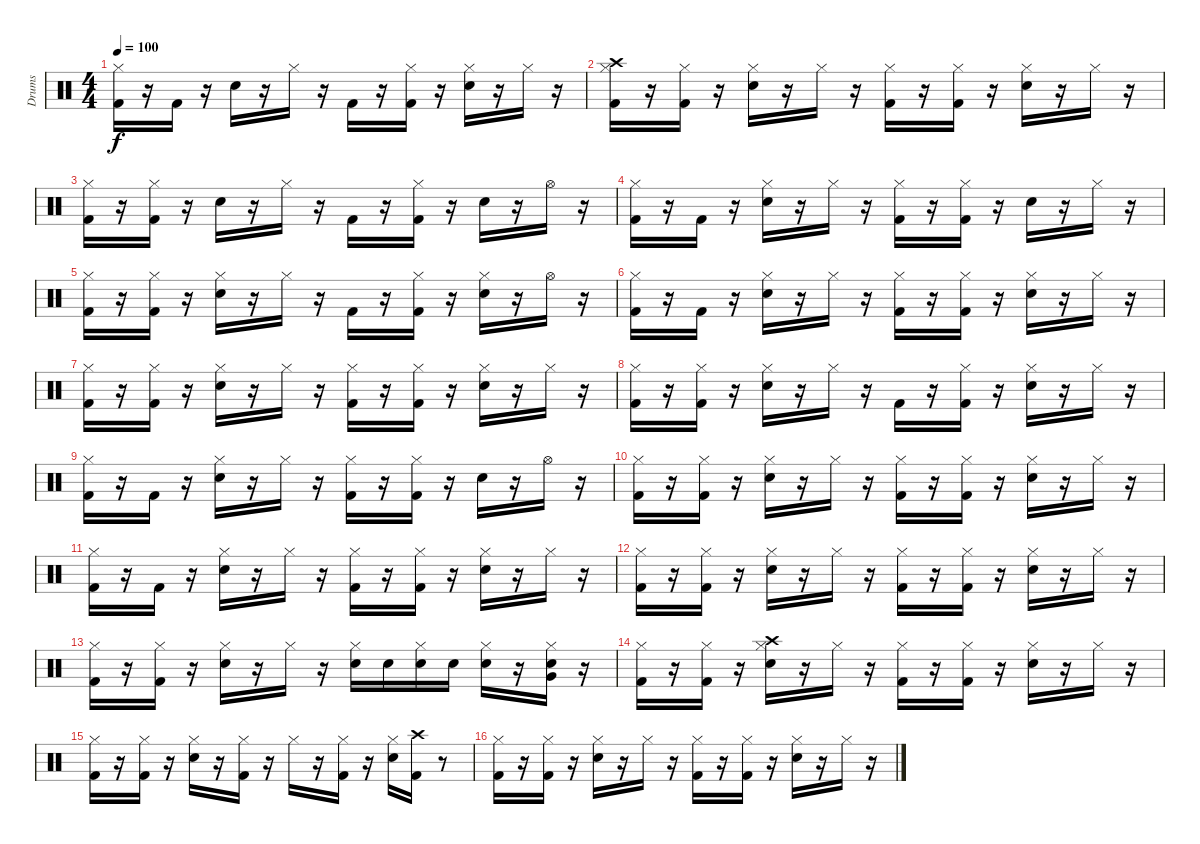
\track ("Drums" "Drums") {instrument percussion}
\staff {score}
\articulation defaults
\ts (4 4)
\tempo 100
\clef neutral
\ks c
("Kick (hit) 2" "Hi-Hat (closed)").16{dy f} r.16 "Kick (hit) 2".16 r.16 "Snare (hit) 2".16 r.16 "Hi-Hat (closed)".16 r.16 "Kick (hit) 2".16 r.16 ("Kick (hit) 2" "Hi-Hat (closed)").16 r.16 ("Snare (hit) 2" "Hi-Hat (closed)").16 r.16 "Hi-Hat (closed)".16 r.16 |
("Kick (hit) 2" "Hi-Hat (closed)" "Crash high (hit)").16 r.16 ("Kick (hit) 2" "Hi-Hat (closed)").16 r.16 ("Snare (hit) 2" "Hi-Hat (closed)").16 r.16 "Hi-Hat (closed)".16 r.16 ("Kick (hit) 2" "Hi-Hat (closed)").16 r.16 ("Kick (hit) 2" "Hi-Hat (closed)").16 r.16 ("Snare (hit) 2" "Hi-Hat (closed)").16 r.16 "Hi-Hat (closed)".16 r.16 |
("Kick (hit) 2" "Hi-Hat (closed)").16 r.16 ("Kick (hit) 2" "Hi-Hat (closed)").16 r.16 "Snare (hit) 2".16 r.16 "Hi-Hat (closed)".16 r.16 "Kick (hit) 2".16 r.16 ("Kick (hit) 2" "Hi-Hat (closed)").16 r.16 "Snare (hit) 2".16 r.16 "Hi-Hat (open)".16 r.16 |
("Kick (hit) 2" "Hi-Hat (closed)").16 r.16 "Kick (hit) 2".16 r.16 ("Snare (hit) 2" "Hi-Hat (closed)").16 r.16 "Hi-Hat (closed)".16 r.16 ("Kick (hit) 2" "Hi-Hat (closed)").16 r.16 ("Kick (hit) 2" "Hi-Hat (closed)").16 r.16 "Snare (hit) 2".16 r.16 "Hi-Hat (closed)".16 r.16 |
("Kick (hit) 2" "Hi-Hat (closed)").16 r.16 ("Kick (hit) 2" "Hi-Hat (closed)").16 r.16 ("Snare (hit) 2" "Hi-Hat (closed)").16 r.16 "Hi-Hat (closed)".16 r.16 "Kick (hit) 2".16 r.16 ("Kick (hit) 2" "Hi-Hat (closed)").16 r.16 ("Snare (hit) 2" "Hi-Hat (closed)").16 r.16 "Hi-Hat (open)".16 r.16 |
("Kick (hit) 2" "Hi-Hat (closed)").16 r.16 "Kick (hit) 2".16 r.16 ("Snare (hit) 2" "Hi-Hat (closed)").16 r.16 "Hi-Hat (closed)".16 r.16 ("Kick (hit) 2" "Hi-Hat (closed)").16 r.16 ("Kick (hit) 2" "Hi-Hat (closed)").16 r.16 ("Snare (hit) 2" "Hi-Hat (closed)").16 r.16 "Hi-Hat (closed)".16 r.16 |
("Kick (hit) 2" "Hi-Hat (closed)").16 r.16 ("Kick (hit) 2" "Hi-Hat (closed)").16 r.16 ("Snare (hit) 2" "Hi-Hat (closed)").16 r.16 "Hi-Hat (closed)".16 r.16 ("Kick (hit) 2" "Hi-Hat (closed)").16 r.16 ("Kick (hit) 2" "Hi-Hat (closed)").16 r.16 ("Snare (hit) 2" "Hi-Hat (closed)").16 r.16 "Hi-Hat (closed)".16 r.16 |
("Kick (hit) 2" "Hi-Hat (closed)").16 r.16 ("Kick (hit) 2" "Hi-Hat (closed)").16 r.16 ("Snare (hit) 2" "Hi-Hat (closed)").16 r.16 "Hi-Hat (closed)".16 r.16 "Kick (hit) 2".16 r.16 ("Kick (hit) 2" "Hi-Hat (closed)").16 r.16 ("Snare (hit) 2" "Hi-Hat (closed)").16 r.16 "Hi-Hat (closed)".16 r.16 |
("Kick (hit) 2" "Hi-Hat (closed)").16 r.16 "Kick (hit) 2".16 r.16 ("Snare (hit) 2" "Hi-Hat (closed)").16 r.16 "Hi-Hat (closed)".16 r.16 ("Kick (hit) 2" "Hi-Hat (closed)").16 r.16 ("Kick (hit) 2" "Hi-Hat (closed)").16 r.16 "Snare (hit) 2".16 r.16 "Hi-Hat (open)".16 r.16 |
("Kick (hit) 2" "Hi-Hat (closed)").16 r.16 ("Kick (hit) 2" "Hi-Hat (closed)").16 r.16 ("Snare (hit) 2" "Hi-Hat (closed)").16 r.16 "Hi-Hat (closed)".16 r.16 ("Kick (hit) 2" "Hi-Hat (closed)").16 r.16 ("Kick (hit) 2" "Hi-Hat (closed)").16 r.16 ("Snare (hit) 2" "Hi-Hat (closed)").16 r.16 "Hi-Hat (closed)".16 r.16 |
("Kick (hit) 2" "Hi-Hat (closed)").16 r.16 "Kick (hit) 2".16 r.16 ("Snare (hit) 2" "Hi-Hat (closed)").16 r.16 "Hi-Hat (closed)".16 r.16 ("Kick (hit) 2" "Hi-Hat (closed)").16 r.16 ("Kick (hit) 2" "Hi-Hat (closed)").16 r.16 ("Snare (hit) 2" "Hi-Hat (closed)").16 r.16 "Hi-Hat (closed)".16 r.16 |
("Kick (hit) 2" "Hi-Hat (closed)").16 r.16 ("Kick (hit) 2" "Hi-Hat (closed)").16 r.16 ("Snare (hit) 2" "Hi-Hat (closed)").16 r.16 "Hi-Hat (closed)".16 r.16 ("Kick (hit) 2" "Hi-Hat (closed)").16 r.16 ("Kick (hit) 2" "Hi-Hat (closed)").16 r.16 ("Snare (hit) 2" "Hi-Hat (closed)").16 r.16 "Hi-Hat (closed)".16 r.16 |
("Kick (hit) 2" "Hi-Hat (closed)").16 r.16 ("Kick (hit) 2" "Hi-Hat (closed)").16 r.16 ("Snare (hit) 2" "Hi-Hat (closed)").16 r.16 "Hi-Hat (closed)".16 r.16 ("Snare (hit) 2" "Hi-Hat (closed)").16 "Snare (hit) 2".16 ("Snare (hit) 2" "Hi-Hat (closed)").16 "Snare (hit) 2".16 ("Snare (hit) 2" "Hi-Hat (closed)").16 r.16 ("Snare (hit) 2" "Hi-Hat (closed)" "Very Low Tom (hit)").16 r.16 |
("Kick (hit) 2" "Hi-Hat (closed)").16 r.16 ("Kick (hit) 2" "Hi-Hat (closed)").16 r.16 ("Snare (hit) 2" "Hi-Hat (closed)" "Crash high (hit)").16 r.16 "Hi-Hat (closed)".16 r.16 ("Kick (hit) 2" "Hi-Hat (closed)").16 r.16 ("Kick (hit) 2" "Hi-Hat (closed)").16 r.16 ("Snare (hit) 2" "Hi-Hat (closed)").16 r.16 "Hi-Hat (closed)".16 r.16 |
("Kick (hit) 2" "Hi-Hat (closed)").16 r.16 ("Kick (hit) 2" "Hi-Hat (closed)").16 r.16 ("Snare (hit) 2" "Hi-Hat (closed)").16 r.16 ("Kick (hit) 2" "Hi-Hat (closed)").16 r.16 "Hi-Hat (closed)".16 r.16 ("Kick (hit) 2" "Hi-Hat (closed)").16 r.16 ("Snare (hit) 2" "Hi-Hat (closed)").16 ("Kick (hit) 2" "Crash high (hit)").16 r.8 |
("Kick (hit) 2" "Hi-Hat (closed)").16 r.16 ("Kick (hit) 2" "Hi-Hat (closed)").16 r.16 ("Snare (hit) 2" "Hi-Hat (closed)").16 r.16 "Hi-Hat (closed)".16 r.16 ("Kick (hit) 2" "Hi-Hat (closed)").16 r.16 ("Kick (hit) 2" "Hi-Hat (closed)").16 r.16 ("Snare (hit) 2" "Hi-Hat (closed)").16 r.16 "Hi-Hat (closed)".16 r.16
